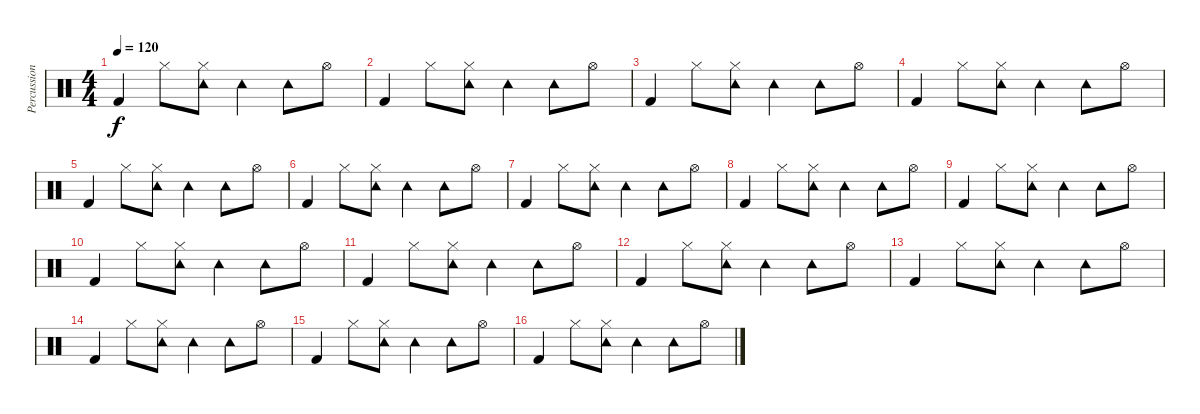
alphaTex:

\track ("Percussion" "Percussion") {instrument percussion}
\staff {score}
\articulation defaults
\ts (4 4)
\tempo 120
\clef neutral
\ks c "Kick (hit) 2".4{dy f} "Hi-Hat (closed)".8
("Tambourine (hit)" "Hi-Hat (closed)").8 "Tambourine (hit)".4 "Tambourine (hit)".8 "Hi-Hat (open)".8 |
"Kick (hit) 2".4 "Hi-Hat (closed)".8 ("Tambourine (hit)" "Hi-Hat (closed)").8 "Tambourine (hit)".4 "Tambourine (hit)".8 "Hi-Hat (open)".8 |
"Kick (hit) 2".4 "Hi-Hat (closed)".8 ("Tambourine (hit)" "Hi-Hat (closed)").8 "Tambourine (hit)".4 "Tambourine (hit)".8 "Hi-Hat (open)".8 |
"Kick (hit) 2".4 "Hi-Hat (closed)".8 ("Tambourine (hit)" "Hi-Hat (closed)").8 "Tambourine (hit)".4 "Tambourine (hit)".8 "Hi-Hat (open)".8 |
"Kick (hit) 2".4 "Hi-Hat (closed)".8 ("Tambourine (hit)" "Hi-Hat (closed)").8 "Tambourine (hit)".4 "Tambourine (hit)".8 "Hi-Hat (open)".8 |
"Kick (hit) 2".4 "Hi-Hat (closed)".8 ("Tambourine (hit)" "Hi-Hat (closed)").8 "Tambourine (hit)".4 "Tambourine (hit)".8 "Hi-Hat (open)".8 |
"Kick (hit) 2".4 "Hi-Hat (closed)".8 ("Tambourine (hit)" "Hi-Hat (closed)").8 "Tambourine (hit)".4 "Tambourine (hit)".8 "Hi-Hat (open)".8 |
"Kick (hit) 2".4 "Hi-Hat (closed)".8 ("Tambourine (hit)" "Hi-Hat (closed)").8 "Tambourine (hit)".4 "Tambourine (hit)".8 "Hi-Hat (open)".8 |
"Kick (hit) 2".4 "Hi-Hat (closed)".8 ("Tambourine (hit)" "Hi-Hat (closed)").8 "Tambourine (hit)".4 "Tambourine (hit)".8 "Hi-Hat (open)".8 |
"Kick (hit) 2".4 "Hi-Hat (closed)".8 ("Tambourine (hit)" "Hi-Hat (closed)").8 "Tambourine (hit)".4 "Tambourine (hit)".8 "Hi-Hat (open)".8 |
"Kick (hit) 2".4 "Hi-Hat (closed)".8 ("Tambourine (hit)" "Hi-Hat (closed)").8 "Tambourine (hit)".4 "Tambourine (hit)".8 "Hi-Hat (open)".8 |
"Kick (hit) 2".4 "Hi-Hat (closed)".8 ("Tambourine (hit)" "Hi-Hat (closed)").8 "Tambourine (hit)".4 "Tambourine (hit)".8 "Hi-Hat (open)".8 |
"Kick (hit) 2".4 "Hi-Hat (closed)".8 ("Tambourine (hit)" "Hi-Hat (closed)").8 "Tambourine (hit)".4 "Tambourine (hit)".8 "Hi-Hat (open)".8 |
"Kick (hit) 2".4 "Hi-Hat (closed)".8 ("Tambourine (hit)" "Hi-Hat (closed)").8 "Tambourine (hit)".4 "Tambourine (hit)".8 "Hi-Hat (open)".8 |
"Kick (hit) 2".4 "Hi-Hat (closed)".8 ("Tambourine (hit)" "Hi-Hat (closed)").8 "Tambourine (hit)".4 "Tambourine (hit)".8 "Hi-Hat (open)".8 |
"Kick (hit) 2".4 "Hi-Hat (closed)".8 ("Tambourine (hit)" "Hi-Hat (closed)").8 "Tambourine (hit)".4 "Tambourine (hit)".8 "Hi-Hat (open)".8
